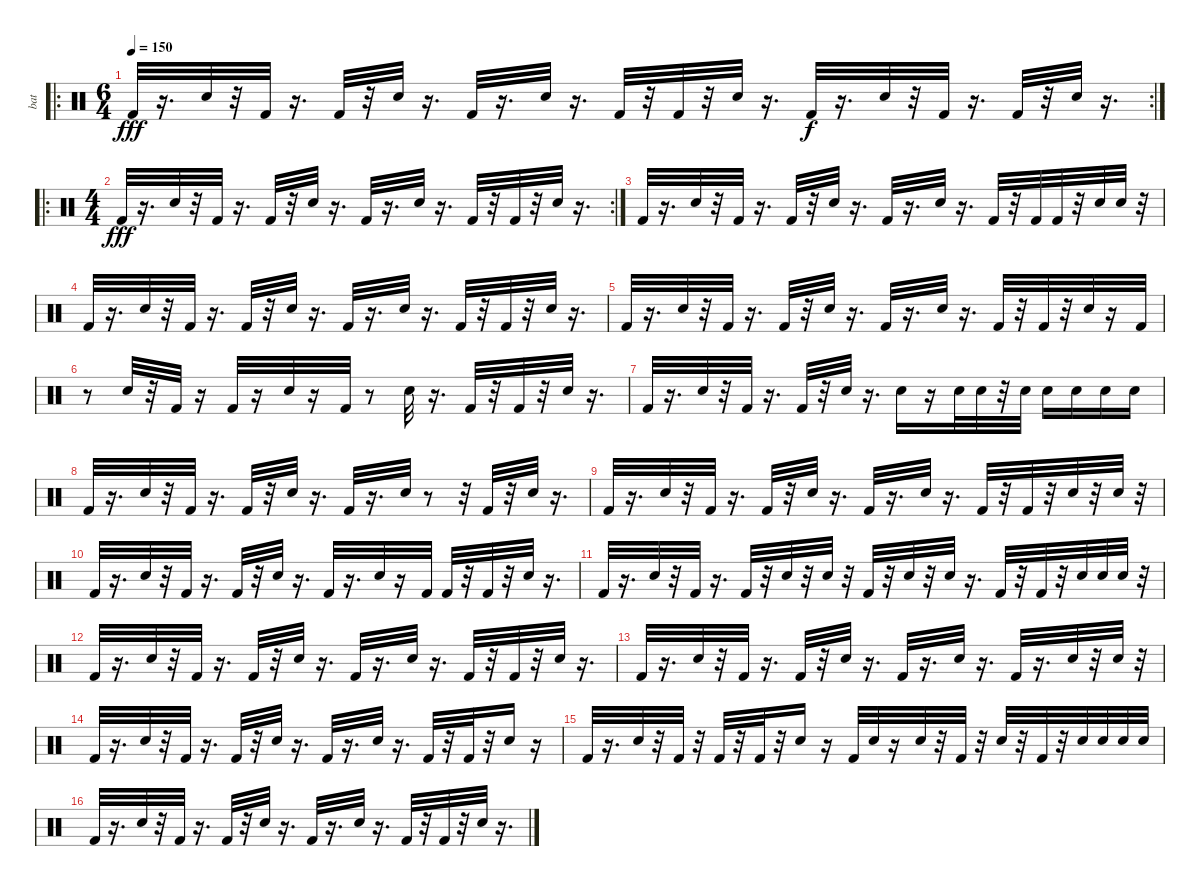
\track ("bat" "bat") {instrument percussion}
\staff {score}
\articulation defaults
\ro
\rc 2
\ts (6 4)
\tempo 150
\clef neutral
\ks c "Kick (hit) 2".32{dy fff}
r.16{d} "Electric Snare (hit)".32 r.32 "Kick (hit) 2".32 r.16{d} "Kick (hit) 2".32 r.32 "Electric Snare (hit)".32 r.16{d} "Kick (hit) 2".32 r.16{d} "Electric Snare (hit)".32 r.16{d} "Kick (hit) 2".32 r.32 "Kick (hit) 2".32 r.32 "Electric Snare (hit)".32 r.16{d} "Kick (hit) 2".32{dy f} r.16{d} "Electric Snare (hit)".32 r.32 "Kick (hit) 2".32 r.16{d} "Kick (hit) 2".32 r.32 "Electric Snare (hit)".32 r.16{d} |
\ro
\rc 2
\ts (4 4)
"Kick (hit) 2".32{dy fff} r.16{d} "Electric Snare (hit)".32 r.32 "Kick (hit) 2".32 r.16{d} "Kick (hit) 2".32 r.32 "Electric Snare (hit)".32 r.16{d} "Kick (hit) 2".32 r.16{d} "Electric Snare (hit)".32 r.16{d} "Kick (hit) 2".32 r.32 "Kick (hit) 2".32 r.32 "Electric Snare (hit)".32 r.16{d} |
"Kick (hit) 2".32 r.16{d} "Electric Snare (hit)".32 r.32 "Kick (hit) 2".32 r.16{d} "Kick (hit) 2".32 r.32 "Electric Snare (hit)".32 r.16{d} "Kick (hit) 2".32 r.16{d} "Electric Snare (hit)".32 r.16{d} "Kick (hit) 2".32 r.32 "Kick (hit) 2".32 "Kick (hit) 2".32 r.32 "Electric Snare (hit)".32 "Electric Snare (hit)".32 r.32 |
"Kick (hit) 2".32 r.16{d} "Electric Snare (hit)".32 r.32 "Kick (hit) 2".32 r.16{d} "Kick (hit) 2".32 r.32 "Electric Snare (hit)".32 r.16{d} "Kick (hit) 2".32 r.16{d} "Electric Snare (hit)".32 r.16{d} "Kick (hit) 2".32 r.32 "Kick (hit) 2".32 r.32 "Electric Snare (hit)".32 r.16{d} |
"Kick (hit) 2".32 r.16{d} "Electric Snare (hit)".32 r.32 "Kick (hit) 2".32 r.16{d} "Kick (hit) 2".32 r.32 "Electric Snare (hit)".32 r.16{d} "Kick (hit) 2".32 r.16{d} "Electric Snare (hit)".32 r.16{d} "Kick (hit) 2".32 r.32 "Kick (hit) 2".32 r.32 "Electric Snare (hit)".32 r.16 "Kick (hit) 2".32 |
r.8 "Electric Snare (hit)".32 r.32 "Kick (hit) 2".32 r.16 "Kick (hit) 2".32 r.16 "Electric Snare (hit)".32 r.16 "Kick (hit) 2".32 r.8 "Electric Snare (hit)".32 r.16{d} "Kick (hit) 2".32 r.32 "Kick (hit) 2".32 r.32 "Electric Snare (hit)".32 r.16{d} |
"Kick (hit) 2".32 r.16{d} "Electric Snare (hit)".32 r.32 "Kick (hit) 2".32 r.16{d} "Kick (hit) 2".32 r.32 "Electric Snare (hit)".32 r.16{d} "Electric Snare (hit)".16 r.16 "Electric Snare (hit)".32 "Electric Snare (hit)".32 r.32 "Electric Snare (hit)".32 "Electric Snare (hit)".16 "Electric Snare (hit)".16 "Electric Snare (hit)".16 "Electric Snare (hit)".16 |
"Kick (hit) 2".32 r.16{d} "Electric Snare (hit)".32 r.32 "Kick (hit) 2".32 r.16{d} "Kick (hit) 2".32 r.32 "Electric Snare (hit)".32 r.16{d} "Kick (hit) 2".32 r.16{d} "Electric Snare (hit)".32 r.8 r.32 "Kick (hit) 2".32 r.32 "Electric Snare (hit)".32 r.16{d} |
"Kick (hit) 2".32 r.16{d} "Electric Snare (hit)".32 r.32 "Kick (hit) 2".32 r.16{d} "Kick (hit) 2".32 r.32 "Electric Snare (hit)".32 r.16{d} "Kick (hit) 2".32 r.16{d} "Electric Snare (hit)".32 r.16{d} "Kick (hit) 2".32 r.32 "Kick (hit) 2".32 r.32 "Electric Snare (hit)".32 r.32 "Electric Snare (hit)".32 r.32 |
"Kick (hit) 2".32 r.16{d} "Electric Snare (hit)".32 r.32 "Kick (hit) 2".32 r.16{d} "Kick (hit) 2".32 r.32 "Electric Snare (hit)".32 r.16{d} "Kick (hit) 2".32 r.16{d} "Electric Snare (hit)".32 r.16 "Kick (hit) 2".32 "Kick (hit) 2".32 r.32 "Kick (hit) 2".32 r.32 "Electric Snare (hit)".32 r.16{d} |
"Kick (hit) 2".32 r.16{d} "Electric Snare (hit)".32 r.32 "Kick (hit) 2".32 r.16{d} "Kick (hit) 2".32 r.32 "Electric Snare (hit)".32 r.32 "Electric Snare (hit)".32 r.32 "Kick (hit) 2".32 r.32 "Electric Snare (hit)".32 r.32 "Electric Snare (hit)".32 r.16{d} "Kick (hit) 2".32 r.32 "Kick (hit) 2".32 r.32 "Electric Snare (hit)".32 "Electric Snare (hit)".32 "Electric Snare (hit)".32 r.32 |
"Kick (hit) 2".32 r.16{d} "Electric Snare (hit)".32 r.32 "Kick (hit) 2".32 r.16{d} "Kick (hit) 2".32 r.32 "Electric Snare (hit)".32 r.16{d} "Kick (hit) 2".32 r.16{d} "Electric Snare (hit)".32 r.16{d} "Kick (hit) 2".32 r.32 "Kick (hit) 2".32 r.32 "Electric Snare (hit)".32 r.16{d} |
"Kick (hit) 2".32 r.16{d} "Electric Snare (hit)".32 r.32 "Kick (hit) 2".32 r.16{d} "Kick (hit) 2".32 r.32 "Electric Snare (hit)".32 r.16{d} "Kick (hit) 2".32 r.16{d} "Electric Snare (hit)".32 r.16{d} "Kick (hit) 2".32 r.16{d} "Electric Snare (hit)".32 r.32 "Electric Snare (hit)".32 r.32 |
"Kick (hit) 2".32 r.16{d} "Electric Snare (hit)".32 r.32 "Kick (hit) 2".32 r.16{d} "Kick (hit) 2".32 r.32 "Electric Snare (hit)".32 r.16{d} "Kick (hit) 2".32 r.16{d} "Electric Snare (hit)".32 r.16{d} "Kick (hit) 2".32 r.32 "Kick (hit) 2".32 r.32 "Electric Snare (hit)".16 r.16 |
"Kick (hit) 2".32 r.16{d} "Electric Snare (hit)".32 r.32 "Kick (hit) 2".32 r.32 "Kick (hit) 2".32 r.32 "Kick (hit) 2".32 r.32 "Electric Snare (hit)".16 r.16 "Kick (hit) 2".32 "Electric Snare (hit)".32 r.16 "Electric Snare (hit)".32 r.32 "Kick (hit) 2".32 r.32 "Electric Snare (hit)".32 r.32 "Kick (hit) 2".32 r.32 "Electric Snare (hit)".32 "Electric Snare (hit)".32 "Electric Snare (hit)".32 "Electric Snare (hit)".32 |
"Kick (hit) 2".32 r.16{d} "Electric Snare (hit)".32 r.32 "Kick (hit) 2".32 r.16{d} "Kick (hit) 2".32 r.32 "Electric Snare (hit)".32 r.16{d} "Kick (hit) 2".32 r.16{d} "Electric Snare (hit)".32 r.16{d} "Kick (hit) 2".32 r.32 "Kick (hit) 2".32 r.32 "Electric Snare (hit)".32 r.16{d}
